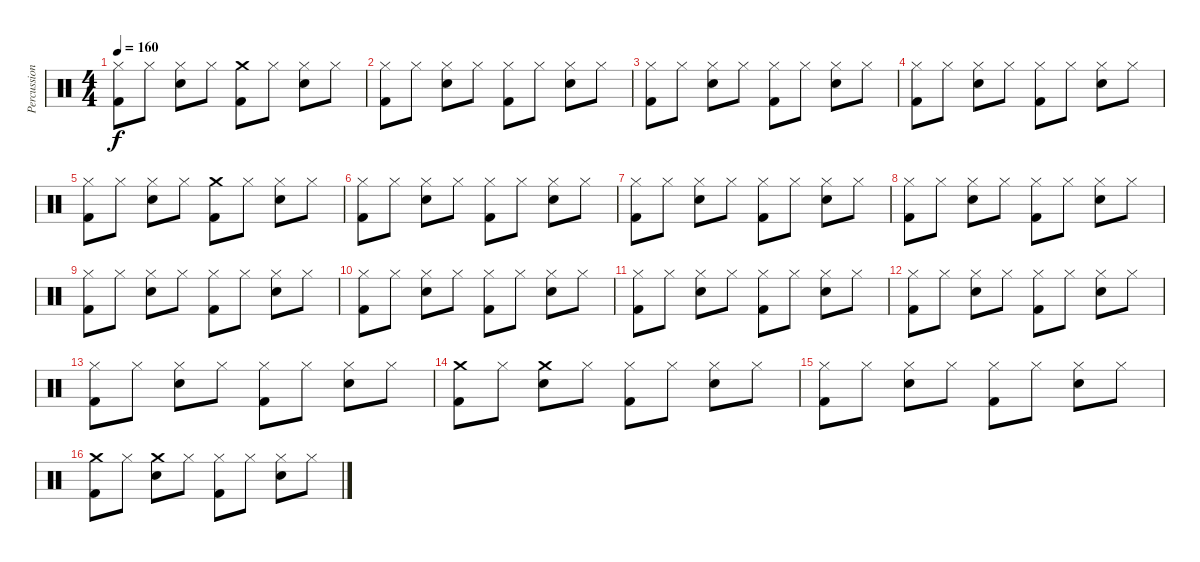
\track ("Percussion" "Percussion") {instrument percussion}
\staff {score}
\articulation defaults
\ts (4 4)
\tempo 160
\clef neutral
\ks c
("Hi-Hat (closed)" "Kick (hit) 2").8{dy f} "Hi-Hat (closed)".8 ("Hi-Hat (closed)" "Snare (hit) 2").8 "Hi-Hat (closed)".8 ("Crash medium (hit)" "Kick (hit) 2").8 "Hi-Hat (closed)".8 ("Hi-Hat (closed)" "Snare (hit) 2").8 "Hi-Hat (closed)".8 |
("Hi-Hat (closed)" "Kick (hit) 2").8 "Hi-Hat (closed)".8 ("Hi-Hat (closed)" "Snare (hit) 2").8 "Hi-Hat (closed)".8 ("Hi-Hat (closed)" "Kick (hit) 2").8 "Hi-Hat (closed)".8 ("Hi-Hat (closed)" "Snare (hit) 2").8 "Hi-Hat (closed)".8 |
("Hi-Hat (closed)" "Kick (hit) 2").8 "Hi-Hat (closed)".8 ("Hi-Hat (closed)" "Snare (hit) 2").8 "Hi-Hat (closed)".8 ("Hi-Hat (closed)" "Kick (hit) 2").8 "Hi-Hat (closed)".8 ("Hi-Hat (closed)" "Snare (hit) 2").8 "Hi-Hat (closed)".8 |
("Hi-Hat (closed)" "Kick (hit) 2").8 "Hi-Hat (closed)".8 ("Hi-Hat (closed)" "Snare (hit) 2").8 "Hi-Hat (closed)".8 ("Hi-Hat (closed)" "Kick (hit) 2").8 "Hi-Hat (closed)".8 ("Hi-Hat (closed)" "Snare (hit) 2").8 "Hi-Hat (closed)".8 |
("Hi-Hat (closed)" "Kick (hit) 2").8 "Hi-Hat (closed)".8 ("Hi-Hat (closed)" "Snare (hit) 2").8 "Hi-Hat (closed)".8 ("Crash medium (hit)" "Kick (hit) 2").8 "Hi-Hat (closed)".8 ("Hi-Hat (closed)" "Snare (hit) 2").8 "Hi-Hat (closed)".8 |
("Hi-Hat (closed)" "Kick (hit) 2").8 "Hi-Hat (closed)".8 ("Hi-Hat (closed)" "Snare (hit) 2").8 "Hi-Hat (closed)".8 ("Hi-Hat (closed)" "Kick (hit) 2").8 "Hi-Hat (closed)".8 ("Hi-Hat (closed)" "Snare (hit) 2").8 "Hi-Hat (closed)".8 |
("Hi-Hat (closed)" "Kick (hit) 2").8 "Hi-Hat (closed)".8 ("Hi-Hat (closed)" "Snare (hit) 2").8 "Hi-Hat (closed)".8 ("Hi-Hat (closed)" "Kick (hit) 2").8 "Hi-Hat (closed)".8 ("Hi-Hat (closed)" "Snare (hit) 2").8 "Hi-Hat (closed)".8 |
("Hi-Hat (closed)" "Kick (hit) 2").8 "Hi-Hat (closed)".8 ("Hi-Hat (closed)" "Snare (hit) 2").8 "Hi-Hat (closed)".8 ("Hi-Hat (closed)" "Kick (hit) 2").8 "Hi-Hat (closed)".8 ("Hi-Hat (closed)" "Snare (hit) 2").8 "Hi-Hat (closed)".8 |
("Hi-Hat (closed)" "Kick (hit) 2").8 "Hi-Hat (closed)".8 ("Hi-Hat (closed)" "Snare (hit) 2").8 "Hi-Hat (closed)".8 ("Hi-Hat (closed)" "Kick (hit) 2").8 "Hi-Hat (closed)".8 ("Hi-Hat (closed)" "Snare (hit) 2").8 "Hi-Hat (closed)".8 |
("Hi-Hat (closed)" "Kick (hit) 2").8 "Hi-Hat (closed)".8 ("Hi-Hat (closed)" "Snare (hit) 2").8 "Hi-Hat (closed)".8 ("Hi-Hat (closed)" "Kick (hit) 2").8 "Hi-Hat (closed)".8 ("Hi-Hat (closed)" "Snare (hit) 2").8 "Hi-Hat (closed)".8 |
("Hi-Hat (closed)" "Kick (hit) 2").8 "Hi-Hat (closed)".8 ("Hi-Hat (closed)" "Snare (hit) 2").8 "Hi-Hat (closed)".8 ("Hi-Hat (closed)" "Kick (hit) 2").8 "Hi-Hat (closed)".8 ("Hi-Hat (closed)" "Snare (hit) 2").8 "Hi-Hat (closed)".8 |
("Hi-Hat (closed)" "Kick (hit) 2").8 "Hi-Hat (closed)".8 ("Hi-Hat (closed)" "Snare (hit) 2").8 "Hi-Hat (closed)".8 ("Hi-Hat (closed)" "Kick (hit) 2").8 "Hi-Hat (closed)".8 ("Hi-Hat (closed)" "Snare (hit) 2").8 "Hi-Hat (closed)".8 |
("Hi-Hat (closed)" "Kick (hit) 2").8 "Hi-Hat (closed)".8 ("Hi-Hat (closed)" "Snare (hit) 2").8 "Hi-Hat (closed)".8 ("Hi-Hat (closed)" "Kick (hit) 2").8 "Hi-Hat (closed)".8 ("Hi-Hat (closed)" "Snare (hit) 2").8 "Hi-Hat (closed)".8 |
("Crash medium (hit)" "Kick (hit) 2").8 "Hi-Hat (closed)".8 ("Crash medium (hit)" "Snare (hit) 2").8 "Hi-Hat (closed)".8 ("Hi-Hat (closed)" "Kick (hit) 2").8 "Hi-Hat (closed)".8 ("Hi-Hat (closed)" "Snare (hit) 2").8 "Hi-Hat (closed)".8 |
("Hi-Hat (closed)" "Kick (hit) 2").8 "Hi-Hat (closed)".8 ("Hi-Hat (closed)" "Snare (hit) 2").8 "Hi-Hat (closed)".8 ("Hi-Hat (closed)" "Kick (hit) 2").8 "Hi-Hat (closed)".8 ("Hi-Hat (closed)" "Snare (hit) 2").8 "Hi-Hat (closed)".8 |
("Crash medium (hit)" "Kick (hit) 2").8 "Hi-Hat (closed)".8 ("Crash medium (hit)" "Snare (hit) 2").8 "Hi-Hat (closed)".8 ("Hi-Hat (closed)" "Kick (hit) 2").8 "Hi-Hat (closed)".8 ("Hi-Hat (closed)" "Snare (hit) 2").8 "Hi-Hat (closed)".8
